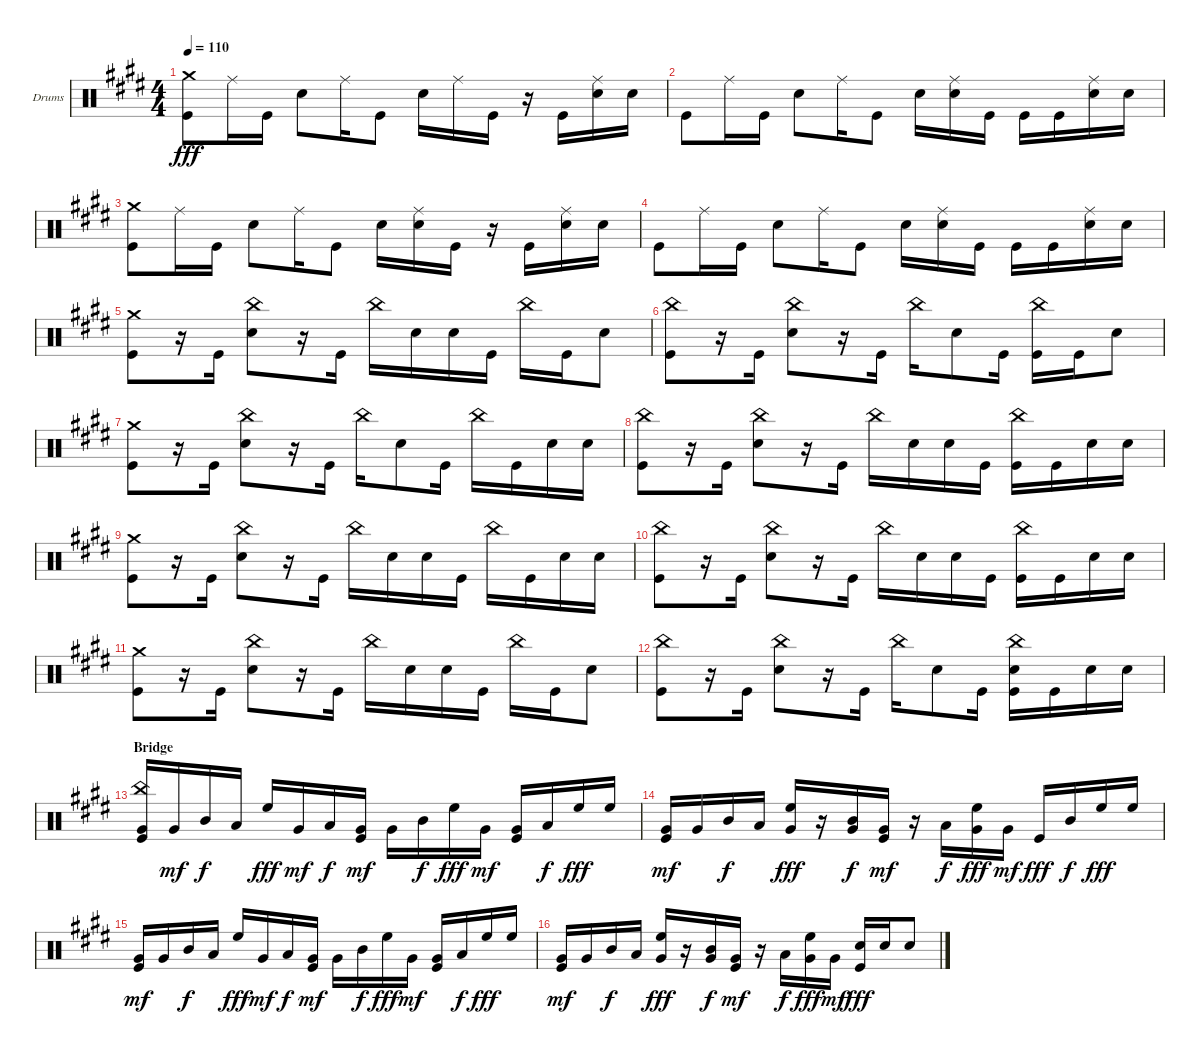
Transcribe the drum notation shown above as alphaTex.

\bracketExtendMode groupsimilarinstruments
\firstSystemTrackNameOrientation horizontal
\otherSystemsTrackNameOrientation horizontal
\track ("Drumkit" "Drums") {instrument percussion}
\staff {score}
\articulation defaults
\ts (4 4)
\tempo 110
\clef neutral
\scale
0.333333
\ks c#minor
("Crash medium (hit)" "Kick (hit)").8{dy fff} "Ride (middle)".16 "Kick (hit)".16 "Snare (hit) 2".8 "Ride (middle)".16 "Kick (hit)".8 "Snare (hit) 2".16 "Ride (middle)".16 "Kick (hit)".16 r.16 "Kick (hit)".16 ("Snare (hit) 2" "Ride (middle)").16 "Snare (hit) 2".16 |
\scale
0.333333 "Kick (hit)".8 "Ride (middle)".16 "Kick (hit)".16 "Snare (hit) 2".8 "Ride (middle)".16 "Kick (hit)".8 "Snare (hit) 2".16 ("Ride (middle)" "Snare (hit) 2").16 "Kick (hit)".16 "Kick (hit)".16 "Kick (hit)".16 ("Snare (hit) 2" "Ride (middle)").16 "Snare (hit) 2".16 |
\scale
0.333333 ("Kick (hit)" "Crash medium (hit)").8 "Ride (middle)".16 "Kick (hit)".16 "Snare (hit) 2".8 "Ride (middle)".16 "Kick (hit)".8 "Snare (hit) 2".16 ("Ride (middle)" "Snare (hit) 2").16 "Kick (hit)".16 r.16 "Kick (hit)".16 ("Ride (middle)" "Snare (hit) 2").16 "Snare (hit) 2".16 |
\scale
0.333333 "Kick (hit)".8 "Ride (middle)".16 "Kick (hit)".16 "Snare (hit) 2".8 "Ride (middle)".16 "Kick (hit)".8 "Snare (hit) 2".16 ("Snare (hit) 2" "Ride (middle)").16 "Kick (hit)".16 "Kick (hit)".16 "Kick (hit)".16 ("Ride (middle)" "Snare (hit) 2").16 "Snare (hit) 2".16 |
\scale
0.333333 ("Crash medium (hit)" "Kick (hit)").8 r.16 "Kick (hit)".16 ("China (hit)" "Snare (hit) 2").8 r.16 "Kick (hit)".16 "China (hit)".16 "Snare (hit) 2".16 "Snare (hit) 2".16 "Kick (hit)".16 "China (hit)".16 "Kick (hit)".16 "Snare (hit) 2".8 |
\scale
0.333333 ("Kick (hit)" "China (hit)").8 r.16 "Kick (hit)".16 ("China (hit)" "Snare (hit) 2").8 r.16 "Kick (hit)".16 "China (hit)".16 "Snare (hit) 2".8 "Kick (hit)".16 ("China (hit)" "Kick (hit)").16 "Kick (hit)".16 "Snare (hit) 2".8 |
\scale
0.333333 ("Crash medium (hit)" "Kick (hit)").8 r.16 "Kick (hit)".16 ("China (hit)" "Snare (hit) 2").8 r.16 "Kick (hit)".16 "China (hit)".16 "Snare (hit) 2".8 "Kick (hit)".16 "China (hit)".16 "Kick (hit)".16 "Snare (hit) 2".16 "Snare (hit) 2".16 |
\scale
0.333333 ("China (hit)" "Kick (hit)").8 r.16 "Kick (hit)".16 ("China (hit)" "Snare (hit) 2").8 r.16 "Kick (hit)".16 "China (hit)".16 "Snare (hit) 2".16 "Snare (hit) 2".16 "Kick (hit)".16 ("Kick (hit)" "China (hit)").16 "Kick (hit)".16 "Snare (hit) 2".16 "Snare (hit) 2".16 |
\scale
0.333333 ("Crash medium (hit)" "Kick (hit)").8 r.16 "Kick (hit)".16 ("Snare (hit) 2" "China (hit)").8 r.16 "Kick (hit)".16 "China (hit)".16 "Snare (hit) 2".16 "Snare (hit) 2".16 "Kick (hit)".16 "China (hit)".16 "Kick (hit)".16 "Snare (hit) 2".16 "Snare (hit) 2".16 |
\scale
0.333333 ("Kick (hit)" "China (hit)").8 r.16 "Kick (hit)".16 ("Snare (hit) 2" "China (hit)").8 r.16 "Kick (hit)".16 "China (hit)".16 "Snare (hit) 2".16 "Snare (hit) 2".16 "Kick (hit)".16 ("China (hit)" "Kick (hit)").16 "Kick (hit)".16 "Snare (hit) 2".16 "Snare (hit) 2".16 |
\scale
0.333333 ("Crash medium (hit)" "Kick (hit)").8 r.16 "Kick (hit)".16 ("China (hit)" "Snare (hit) 2").8 r.16 "Kick (hit)".16 "China (hit)".16 "Snare (hit) 2".16 "Snare (hit) 2".16 "Kick (hit)".16 "China (hit)".16 "Kick (hit)".16 "Snare (hit) 2".8 |
\scale
0.333333 ("China (hit)" "Kick (hit)").8 r.16 "Kick (hit)".16 ("China (hit)" "Snare (hit) 2").8 r.16 "Kick (hit)".16 "China (hit)".16 "Snare (hit) 2".8 "Kick (hit)".16 ("Kick (hit)" "China (hit)" "Snare (hit) 2").16 "Kick (hit)".16 "Snare (hit) 2".16 "Snare (hit) 2".16 |
\section ("" "Bridge")
\scale
0.333333 ("Kick (hit)" "China (hit)" "Very Low Tom (hit)").16 "Very Low Tom (hit)".16{dy mf} "Mid Tom (hit)".16{dy f} "Low Tom (hit)".16 "High Floor Tom (hit)".16{dy fff} "Very Low Tom (hit)".16{dy mf} "Low Tom (hit)".16{dy f} ("Very Low Tom (hit)" "Kick (hit)").16{dy mf} "Very Low Tom (hit)".16 "Mid Tom (hit)".16{dy f} "High Floor Tom (hit)".16{dy fff} "Very Low Tom (hit)".16{dy mf} ("Very Low Tom (hit)" "Kick (hit)").16 "Low Tom (hit)".16{dy f} "High Floor Tom (hit)".16{dy fff} "High Floor Tom (hit)".16 |
\scale
0.333333 ("Very Low Tom (hit)" "Kick (hit)").16{dy mf} "Very Low Tom (hit)".16 "Mid Tom (hit)".16{dy f} "Low Tom (hit)".16 ("High Floor Tom (hit)" "Very Low Tom (hit)").16{dy fff} r.16 ("Mid Tom (hit)" "Very Low Tom (hit)").16{dy f} ("Very Low Tom (hit)" "Kick (hit)").16{dy mf} r.16 "Low Tom (hit)".16{dy f} ("High Floor Tom (hit)" "Very Low Tom (hit)").16{dy fff} "Very Low Tom (hit)".16{dy mf} "Kick (hit)".16{dy fff} "Mid Tom (hit)".16{dy f} "High Floor Tom (hit)".16{dy fff} "High Floor Tom (hit)".16 |
\scale
0.333333 ("Very Low Tom (hit)" "Kick (hit)").16{dy mf} "Very Low Tom (hit)".16 "Mid Tom (hit)".16{dy f} "Low Tom (hit)".16 "High Floor Tom (hit)".16{dy fff} "Very Low Tom (hit)".16{dy mf} "Low Tom (hit)".16{dy f} ("Very Low Tom (hit)" "Kick (hit)").16{dy mf} "Very Low Tom (hit)".16 "Mid Tom (hit)".16{dy f} "High Floor Tom (hit)".16{dy fff} "Very Low Tom (hit)".16{dy mf} ("Very Low Tom (hit)" "Kick (hit)").16 "Low Tom (hit)".16{dy f} "High Floor Tom (hit)".16{dy fff} "High Floor Tom (hit)".16 |
\scale
0.333333 ("Very Low Tom (hit)" "Kick (hit)").16{dy mf} "Very Low Tom (hit)".16 "Mid Tom (hit)".16{dy f} "Low Tom (hit)".16 ("High Floor Tom (hit)" "Very Low Tom (hit)").16{dy fff} r.16 ("Mid Tom (hit)" "Very Low Tom (hit)").16{dy f} ("Very Low Tom (hit)" "Kick (hit)").16{dy mf} r.16 "Low Tom (hit)".16{dy f} ("High Floor Tom (hit)" "Very Low Tom (hit)").16{dy fff} "Very Low Tom (hit)".16{dy mf} ("Kick (hit)" "Snare (hit) 2").16{dy fff} "Snare (hit) 2".16 "Snare (hit) 2".8
